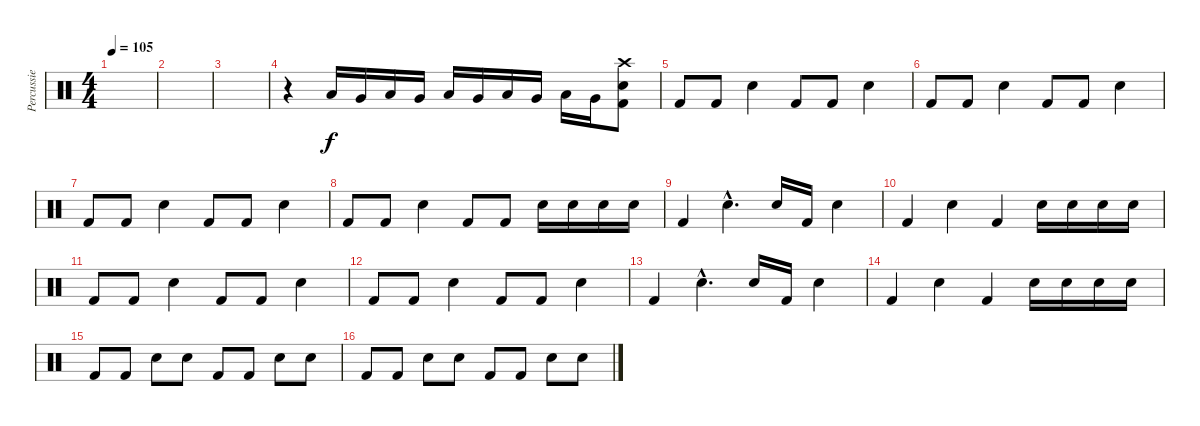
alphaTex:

\track ("Percussie" "Percussie") {instrument percussion}
\staff {score}
\articulation defaults
\ts (4 4)
\tempo 105
\clef neutral
\ks c
|
|
|
r.4 "Low Floor Tom (hit)".16 "Very Low Tom (hit)".16 "Low Floor Tom (hit)".16 "Very Low Tom (hit)".16 "Low Floor Tom (hit)".16 "Very Low Tom (hit)".16 "Low Floor Tom (hit)".16 "Very Low Tom (hit)".16 "Low Floor Tom (hit)".16 "Very Low Tom (hit)".16 ("Crash high (hit)" "Electric Snare (hit)" "Kick (hit) 2").8 |
"Kick (hit) 2".8 "Kick (hit) 2".8 "Electric Snare (hit)".4 "Kick (hit) 2".8 "Kick (hit) 2".8 "Electric Snare (hit)".4 |
"Kick (hit) 2".8 "Kick (hit) 2".8 "Electric Snare (hit)".4 "Kick (hit) 2".8 "Kick (hit) 2".8 "Electric Snare (hit)".4 |
"Kick (hit) 2".8 "Kick (hit) 2".8 "Electric Snare (hit)".4 "Kick (hit) 2".8 "Kick (hit) 2".8 "Electric Snare (hit)".4 |
"Kick (hit) 2".8 "Kick (hit) 2".8 "Electric Snare (hit)".4 "Kick (hit) 2".8 "Kick (hit) 2".8 "Electric Snare (hit)".16 "Electric Snare (hit)".16 "Electric Snare (hit)".16 "Electric Snare (hit)".16 |
"Kick (hit) 2".4 "Electric Snare (hit)"{hac}.4{d} "Electric Snare (hit)".16 "Kick (hit) 2".16 "Electric Snare (hit)".4 |
"Kick (hit) 2".4 "Electric Snare (hit)".4 "Kick (hit) 2".4 "Electric Snare (hit)".16 "Electric Snare (hit)".16 "Electric Snare (hit)".16 "Electric Snare (hit)".16 |
"Kick (hit) 2".8 "Kick (hit) 2".8 "Electric Snare (hit)".4 "Kick (hit) 2".8 "Kick (hit) 2".8 "Electric Snare (hit)".4 |
"Kick (hit) 2".8 "Kick (hit) 2".8 "Electric Snare (hit)".4 "Kick (hit) 2".8 "Kick (hit) 2".8 "Electric Snare (hit)".4 |
"Kick (hit) 2".4 "Electric Snare (hit)"{hac}.4{d} "Electric Snare (hit)".16 "Kick (hit) 2".16 "Electric Snare (hit)".4 |
"Kick (hit) 2".4 "Electric Snare (hit)".4 "Kick (hit) 2".4 "Electric Snare (hit)".16 "Electric Snare (hit)".16 "Electric Snare (hit)".16 "Electric Snare (hit)".16 |
"Kick (hit) 2".8 "Kick (hit) 2".8 "Electric Snare (hit)".8 "Electric Snare (hit)".8 "Kick (hit) 2".8 "Kick (hit) 2".8 "Electric Snare (hit)".8 "Electric Snare (hit)".8 |
"Kick (hit) 2".8 "Kick (hit) 2".8 "Electric Snare (hit)".8 "Electric Snare (hit)".8 "Kick (hit) 2".8 "Kick (hit) 2".8 "Electric Snare (hit)".8 "Electric Snare (hit)".8
